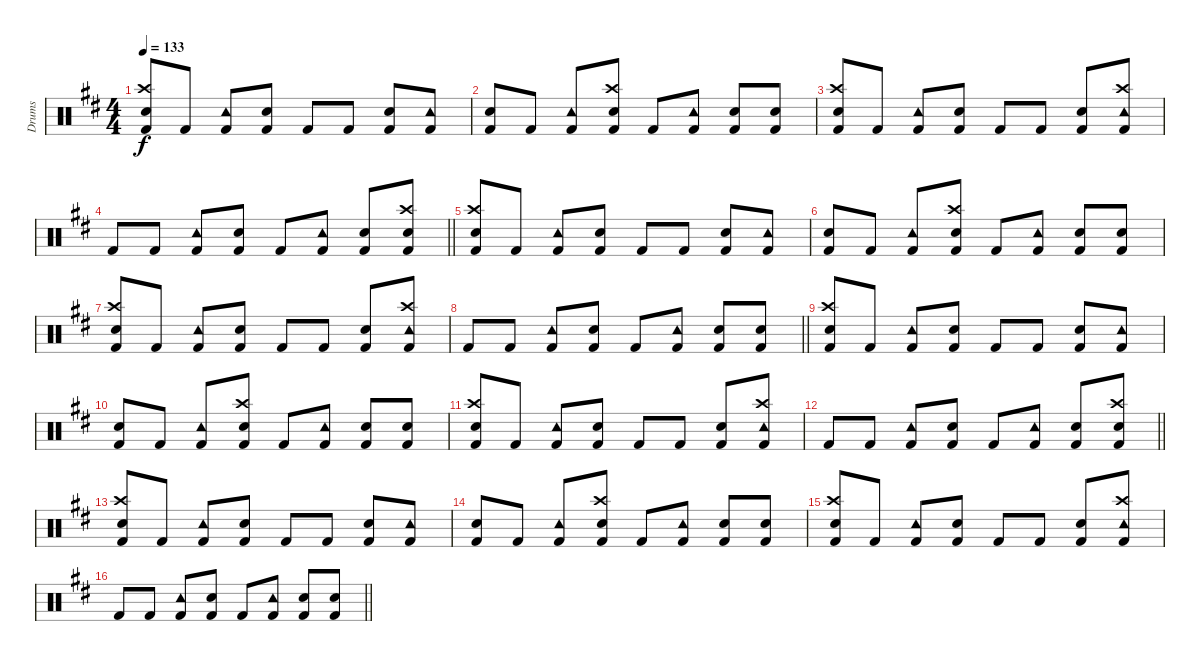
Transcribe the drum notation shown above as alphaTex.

\track ("Drums" "Drums") {instrument percussion}
\staff {score}
\articulation defaults
\ts (4 4)
\tempo 133
\clef neutral
\ks d
("Kick (hit) 2" "Crash high (hit)" "Snare (hit) 2").8{dy f} "Kick (hit) 2".8 ("Kick (hit) 2" "Tambourine (hit)").8 ("Kick (hit) 2" "Snare (hit) 2").8 "Kick (hit) 2".8 "Kick (hit) 2".8 ("Kick (hit) 2" "Snare (hit) 2").8 ("Kick (hit) 2" "Tambourine (hit)").8 |
("Kick (hit) 2" "Snare (hit) 2").8 "Kick (hit) 2".8 ("Kick (hit) 2" "Tambourine (hit)").8 ("Kick (hit) 2" "Snare (hit) 2" "Crash high (hit)").8 "Kick (hit) 2".8 ("Kick (hit) 2" "Tambourine (hit)").8 ("Kick (hit) 2" "Snare (hit) 2").8 ("Kick (hit) 2" "Snare (hit) 2").8 |
("Kick (hit) 2" "Crash high (hit)" "Snare (hit) 2").8 "Kick (hit) 2".8 ("Kick (hit) 2" "Tambourine (hit)").8 ("Kick (hit) 2" "Snare (hit) 2").8 "Kick (hit) 2".8 "Kick (hit) 2".8 ("Kick (hit) 2" "Snare (hit) 2").8 ("Kick (hit) 2" "Tambourine (hit)" "Crash high (hit)").8 |
\barLineRight lightlight "Kick (hit) 2".8 "Kick (hit) 2".8
("Kick (hit) 2" "Tambourine (hit)").8 ("Kick (hit) 2" "Snare (hit) 2").8 "Kick (hit) 2".8 ("Kick (hit) 2" "Tambourine (hit)").8 ("Kick (hit) 2" "Snare (hit) 2").8 ("Kick (hit) 2" "Snare (hit) 2" "Crash high (hit)").8 |
("Kick (hit) 2" "Crash high (hit)" "Snare (hit) 2").8 "Kick (hit) 2".8 ("Kick (hit) 2" "Tambourine (hit)").8 ("Kick (hit) 2" "Snare (hit) 2").8 "Kick (hit) 2".8 "Kick (hit) 2".8 ("Kick (hit) 2" "Snare (hit) 2").8 ("Kick (hit) 2" "Tambourine (hit)").8 |
("Kick (hit) 2" "Snare (hit) 2").8 "Kick (hit) 2".8 ("Kick (hit) 2" "Tambourine (hit)").8 ("Kick (hit) 2" "Snare (hit) 2" "Crash high (hit)").8 "Kick (hit) 2".8 ("Kick (hit) 2" "Tambourine (hit)").8 ("Kick (hit) 2" "Snare (hit) 2").8 ("Kick (hit) 2" "Snare (hit) 2").8 |
("Kick (hit) 2" "Crash high (hit)" "Snare (hit) 2").8 "Kick (hit) 2".8 ("Kick (hit) 2" "Tambourine (hit)").8 ("Kick (hit) 2" "Snare (hit) 2").8 "Kick (hit) 2".8 "Kick (hit) 2".8 ("Kick (hit) 2" "Snare (hit) 2").8 ("Kick (hit) 2" "Tambourine (hit)" "Crash high (hit)").8 |
\barLineRight lightlight "Kick (hit) 2".8 "Kick (hit) 2".8
("Kick (hit) 2" "Tambourine (hit)").8 ("Kick (hit) 2" "Snare (hit) 2").8 "Kick (hit) 2".8 ("Kick (hit) 2" "Tambourine (hit)").8 ("Kick (hit) 2" "Snare (hit) 2").8 ("Kick (hit) 2" "Snare (hit) 2").8 |
("Kick (hit) 2" "Crash high (hit)" "Snare (hit) 2").8 "Kick (hit) 2".8 ("Kick (hit) 2" "Tambourine (hit)").8 ("Kick (hit) 2" "Snare (hit) 2").8 "Kick (hit) 2".8 "Kick (hit) 2".8 ("Kick (hit) 2" "Snare (hit) 2").8 ("Kick (hit) 2" "Tambourine (hit)").8 |
("Kick (hit) 2" "Snare (hit) 2").8 "Kick (hit) 2".8 ("Kick (hit) 2" "Tambourine (hit)").8 ("Kick (hit) 2" "Snare (hit) 2" "Crash high (hit)").8 "Kick (hit) 2".8 ("Kick (hit) 2" "Tambourine (hit)").8 ("Kick (hit) 2" "Snare (hit) 2").8 ("Kick (hit) 2" "Snare (hit) 2").8 |
("Kick (hit) 2" "Crash high (hit)" "Snare (hit) 2").8 "Kick (hit) 2".8 ("Kick (hit) 2" "Tambourine (hit)").8 ("Kick (hit) 2" "Snare (hit) 2").8 "Kick (hit) 2".8 "Kick (hit) 2".8 ("Kick (hit) 2" "Snare (hit) 2").8 ("Kick (hit) 2" "Tambourine (hit)" "Crash high (hit)").8 |
\barLineRight lightlight "Kick (hit) 2".8 "Kick (hit) 2".8
("Kick (hit) 2" "Tambourine (hit)").8 ("Kick (hit) 2" "Snare (hit) 2").8 "Kick (hit) 2".8 ("Kick (hit) 2" "Tambourine (hit)").8 ("Kick (hit) 2" "Snare (hit) 2").8 ("Kick (hit) 2" "Snare (hit) 2" "Crash high (hit)").8 |
("Kick (hit) 2" "Crash high (hit)" "Snare (hit) 2").8 "Kick (hit) 2".8 ("Kick (hit) 2" "Tambourine (hit)").8 ("Kick (hit) 2" "Snare (hit) 2").8 "Kick (hit) 2".8 "Kick (hit) 2".8 ("Kick (hit) 2" "Snare (hit) 2").8 ("Kick (hit) 2" "Tambourine (hit)").8 |
("Kick (hit) 2" "Snare (hit) 2").8 "Kick (hit) 2".8 ("Kick (hit) 2" "Tambourine (hit)").8 ("Kick (hit) 2" "Snare (hit) 2" "Crash high (hit)").8 "Kick (hit) 2".8 ("Kick (hit) 2" "Tambourine (hit)").8 ("Kick (hit) 2" "Snare (hit) 2").8 ("Kick (hit) 2" "Snare (hit) 2").8 |
("Kick (hit) 2" "Crash high (hit)" "Snare (hit) 2").8 "Kick (hit) 2".8 ("Kick (hit) 2" "Tambourine (hit)").8 ("Kick (hit) 2" "Snare (hit) 2").8 "Kick (hit) 2".8 "Kick (hit) 2".8 ("Kick (hit) 2" "Snare (hit) 2").8 ("Kick (hit) 2" "Tambourine (hit)" "Crash high (hit)").8 |
\barLineRight lightlight "Kick (hit) 2".8 "Kick (hit) 2".8
("Kick (hit) 2" "Tambourine (hit)").8 ("Kick (hit) 2" "Snare (hit) 2").8 "Kick (hit) 2".8 ("Kick (hit) 2" "Tambourine (hit)").8 ("Kick (hit) 2" "Snare (hit) 2").8 ("Kick (hit) 2" "Snare (hit) 2").8
